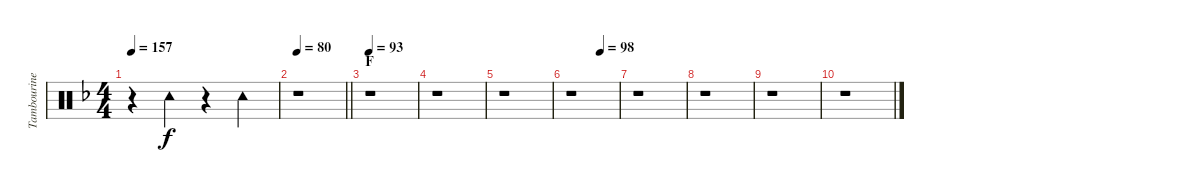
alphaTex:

\track ("Tambourine" "Tambourine") {instrument percussion}
\staff {score}
\articulation defaults
\ts (4 4)
\tempo 157
\clef neutral
\ks f
r.4{dy f} "Tambourine (hit)".4 r.4 "Tambourine (hit)".4 |
\tempo 80
\barLineRight lightlight
r.1 |
\section ("" "F")
\tempo 93
r.1 |
r.1 |
r.1 |
\tempo (98 0.625)
r.1 |
r.1 |
r.1 |
r.1 |
r.1
